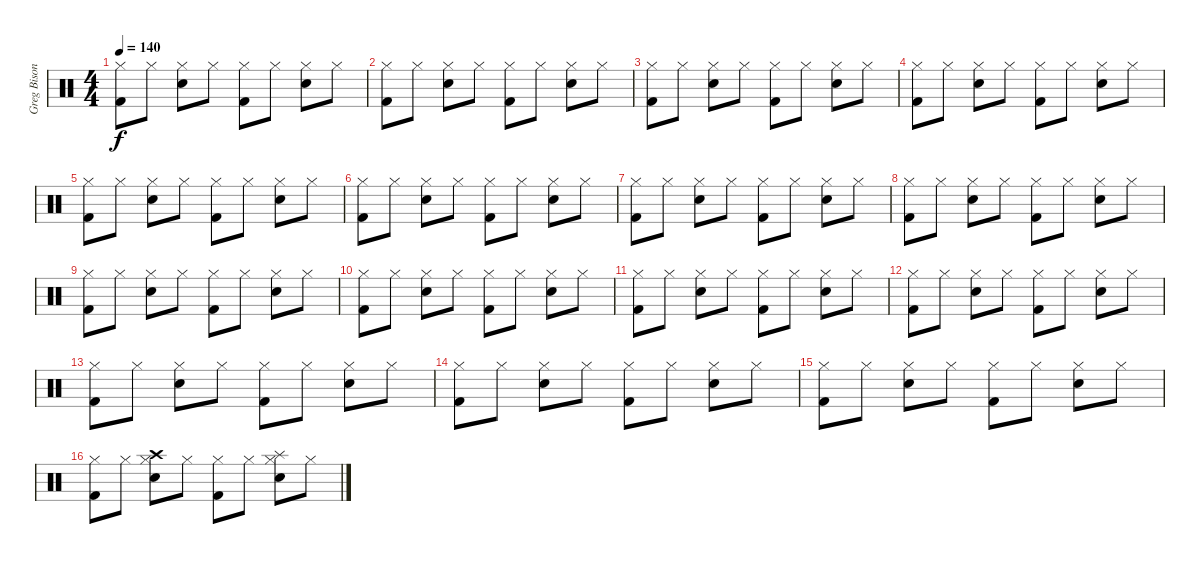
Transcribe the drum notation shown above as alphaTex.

\track ("Greg Bisonette" "Greg Bison") {instrument percussion}
\staff {score}
\articulation defaults
\ts (4 4)
\tempo 140
\clef neutral
\ks c
("Hi-Hat (closed)" "Kick (hit) 2").8{dy f} "Hi-Hat (closed)".8 ("Hi-Hat (closed)" "Electric Snare (hit)").8 "Hi-Hat (closed)".8 ("Hi-Hat (closed)" "Kick (hit) 2").8 "Hi-Hat (closed)".8 ("Hi-Hat (closed)" "Electric Snare (hit)").8 "Hi-Hat (closed)".8 |
("Hi-Hat (closed)" "Kick (hit) 2").8 "Hi-Hat (closed)".8 ("Hi-Hat (closed)" "Electric Snare (hit)").8 "Hi-Hat (closed)".8 ("Hi-Hat (closed)" "Kick (hit) 2").8 "Hi-Hat (closed)".8 ("Hi-Hat (closed)" "Electric Snare (hit)").8 "Hi-Hat (closed)".8 |
("Hi-Hat (closed)" "Kick (hit) 2").8 "Hi-Hat (closed)".8 ("Hi-Hat (closed)" "Electric Snare (hit)").8 "Hi-Hat (closed)".8 ("Hi-Hat (closed)" "Kick (hit) 2").8 "Hi-Hat (closed)".8 ("Hi-Hat (closed)" "Electric Snare (hit)").8 "Hi-Hat (closed)".8 |
("Hi-Hat (closed)" "Kick (hit) 2").8 "Hi-Hat (closed)".8 ("Hi-Hat (closed)" "Electric Snare (hit)").8 "Hi-Hat (closed)".8 ("Hi-Hat (closed)" "Kick (hit) 2").8 "Hi-Hat (closed)".8 ("Hi-Hat (closed)" "Electric Snare (hit)").8 "Hi-Hat (closed)".8 |
("Hi-Hat (closed)" "Kick (hit) 2").8 "Hi-Hat (closed)".8 ("Hi-Hat (closed)" "Electric Snare (hit)").8 "Hi-Hat (closed)".8 ("Hi-Hat (closed)" "Kick (hit) 2").8 "Hi-Hat (closed)".8 ("Hi-Hat (closed)" "Electric Snare (hit)").8 "Hi-Hat (closed)".8 |
("Hi-Hat (closed)" "Kick (hit) 2").8 "Hi-Hat (closed)".8 ("Hi-Hat (closed)" "Electric Snare (hit)").8 "Hi-Hat (closed)".8 ("Hi-Hat (closed)" "Kick (hit) 2").8 "Hi-Hat (closed)".8 ("Hi-Hat (closed)" "Electric Snare (hit)").8 "Hi-Hat (closed)".8 |
("Hi-Hat (closed)" "Kick (hit) 2").8 "Hi-Hat (closed)".8 ("Hi-Hat (closed)" "Electric Snare (hit)").8 "Hi-Hat (closed)".8 ("Hi-Hat (closed)" "Kick (hit) 2").8 "Hi-Hat (closed)".8 ("Hi-Hat (closed)" "Electric Snare (hit)").8 "Hi-Hat (closed)".8 |
("Hi-Hat (closed)" "Kick (hit) 2").8 "Hi-Hat (closed)".8 ("Hi-Hat (closed)" "Electric Snare (hit)").8 "Hi-Hat (closed)".8 ("Hi-Hat (closed)" "Kick (hit) 2").8 "Hi-Hat (closed)".8 ("Hi-Hat (closed)" "Electric Snare (hit)").8 "Hi-Hat (closed)".8 |
("Hi-Hat (closed)" "Kick (hit) 2").8 "Hi-Hat (closed)".8 ("Hi-Hat (closed)" "Electric Snare (hit)").8 "Hi-Hat (closed)".8 ("Hi-Hat (closed)" "Kick (hit) 2").8 "Hi-Hat (closed)".8 ("Hi-Hat (closed)" "Electric Snare (hit)").8 "Hi-Hat (closed)".8 |
("Hi-Hat (closed)" "Kick (hit) 2").8 "Hi-Hat (closed)".8 ("Hi-Hat (closed)" "Electric Snare (hit)").8 "Hi-Hat (closed)".8 ("Hi-Hat (closed)" "Kick (hit) 2").8 "Hi-Hat (closed)".8 ("Hi-Hat (closed)" "Electric Snare (hit)").8 "Hi-Hat (closed)".8 |
("Hi-Hat (closed)" "Kick (hit) 2").8 "Hi-Hat (closed)".8 ("Hi-Hat (closed)" "Electric Snare (hit)").8 "Hi-Hat (closed)".8 ("Hi-Hat (closed)" "Kick (hit) 2").8 "Hi-Hat (closed)".8 ("Hi-Hat (closed)" "Electric Snare (hit)").8 "Hi-Hat (closed)".8 |
("Hi-Hat (closed)" "Kick (hit) 2").8 "Hi-Hat (closed)".8 ("Hi-Hat (closed)" "Electric Snare (hit)").8 "Hi-Hat (closed)".8 ("Hi-Hat (closed)" "Kick (hit) 2").8 "Hi-Hat (closed)".8 ("Hi-Hat (closed)" "Electric Snare (hit)").8 "Hi-Hat (closed)".8 |
("Hi-Hat (closed)" "Kick (hit) 2").8 "Hi-Hat (closed)".8 ("Hi-Hat (closed)" "Electric Snare (hit)").8 "Hi-Hat (closed)".8 ("Hi-Hat (closed)" "Kick (hit) 2").8 "Hi-Hat (closed)".8 ("Hi-Hat (closed)" "Electric Snare (hit)").8 "Hi-Hat (closed)".8 |
("Hi-Hat (closed)" "Kick (hit) 2").8 "Hi-Hat (closed)".8 ("Hi-Hat (closed)" "Electric Snare (hit)").8 "Hi-Hat (closed)".8 ("Hi-Hat (closed)" "Kick (hit) 2").8 "Hi-Hat (closed)".8 ("Hi-Hat (closed)" "Electric Snare (hit)").8 "Hi-Hat (closed)".8 |
("Hi-Hat (closed)" "Kick (hit) 2").8 "Hi-Hat (closed)".8 ("Hi-Hat (closed)" "Electric Snare (hit)").8 "Hi-Hat (closed)".8 ("Hi-Hat (closed)" "Kick (hit) 2").8 "Hi-Hat (closed)".8 ("Hi-Hat (closed)" "Electric Snare (hit)").8 "Hi-Hat (closed)".8 |
("Hi-Hat (closed)" "Kick (hit) 2").8 "Hi-Hat (closed)".8 ("Crash high (hit)" "Hi-Hat (closed)" "Electric Snare (hit)").8 "Hi-Hat (closed)".8 ("Hi-Hat (closed)" "Kick (hit) 2").8 "Hi-Hat (closed)".8 ("Splash (hit)" "Hi-Hat (closed)" "Electric Snare (hit)").8 "Hi-Hat (closed)".8
